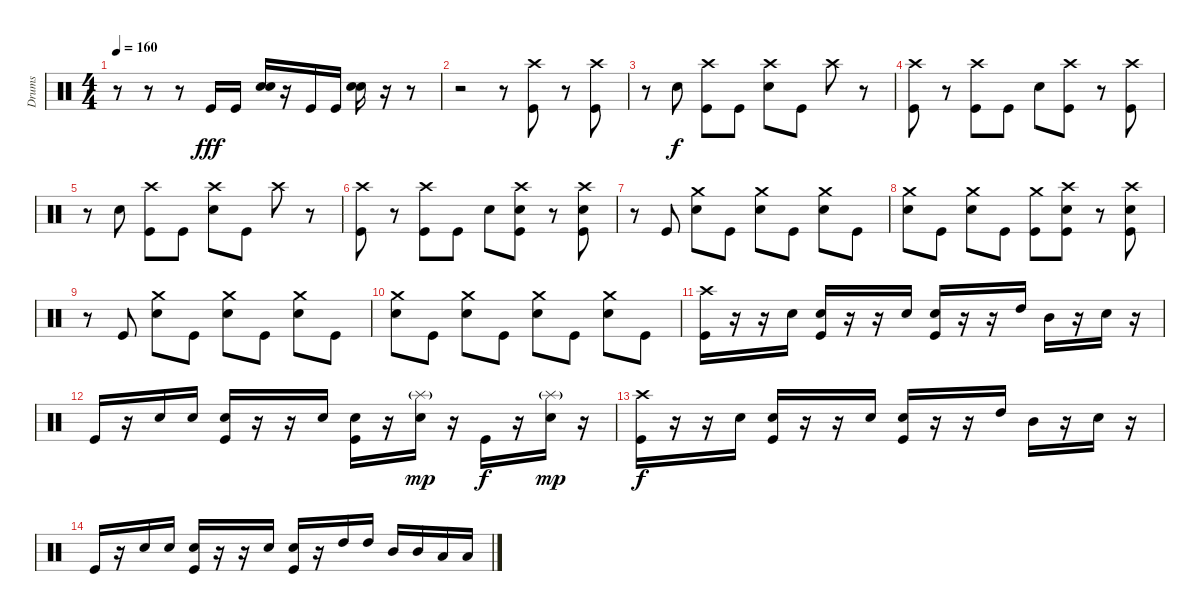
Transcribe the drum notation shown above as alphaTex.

\track ("Drums" "Drums") {instrument percussion}
\staff {score}
\articulation defaults
\ts (4 4)
\tempo 160
\clef neutral
\ks c
r.8{dy fff} r.8 r.8 "Kick (hit)".16 "Kick (hit)".16 ("Snare (hit) 2" "Snare (hit) 2").16 r.16 "Kick (hit)".16 "Kick (hit)".16 ("Snare (hit) 2" "Snare (hit) 2").16 r.16 r.8 |
r.2 r.8 ("Crash high (hit)" "Kick (hit)").8 r.8 ("Crash high (hit)" "Kick (hit)").8 |
r.8 "Snare (hit) 2".8{dy f} ("Crash high (hit)" "Kick (hit)").8 "Kick (hit)".8 ("Crash high (hit)" "Snare (hit) 2").8 "Kick (hit)".8 "Crash high (hit)".8 r.8 |
("Crash high (hit)" "Kick (hit)").8 r.8 ("Crash high (hit)" "Kick (hit)").8 "Kick (hit)".8 "Snare (hit) 2".8 ("Crash high (hit)" "Kick (hit)").8 r.8 ("Crash high (hit)" "Kick (hit)").8 |
r.8 "Snare (hit) 2".8 ("Crash high (hit)" "Kick (hit)").8 "Kick (hit)".8 ("Crash high (hit)" "Snare (hit) 2").8 "Kick (hit)".8 "Crash high (hit)".8 r.8 |
("Crash high (hit)" "Kick (hit)").8 r.8 ("Crash high (hit)" "Kick (hit)").8 "Kick (hit)".8 "Snare (hit) 2".8 ("Crash high (hit)" "Kick (hit)" "Snare (hit) 2").8 r.8 ("Crash high (hit)" "Kick (hit)" "Snare (hit) 2").8 |
r.8 "Kick (hit)".8 ("Crash medium (hit)" "Snare (hit) 2").8 "Kick (hit)".8 ("Crash medium (hit)" "Snare (hit) 2").8 "Kick (hit)".8 ("Crash medium (hit)" "Snare (hit) 2").8 "Kick (hit)".8 |
("Crash medium (hit)" "Snare (hit) 2").8 "Kick (hit)".8 ("Crash medium (hit)" "Snare (hit) 2").8 "Kick (hit)".8 ("Crash medium (hit)" "Kick (hit)").8 ("Crash high (hit)" "Snare (hit) 2" "Kick (hit)").8 r.8 ("Crash high (hit)" "Snare (hit) 2" "Kick (hit)").8 |
r.8 "Kick (hit)".8 ("Crash medium (hit)" "Snare (hit) 2").8 "Kick (hit)".8 ("Crash medium (hit)" "Snare (hit) 2").8 "Kick (hit)".8 ("Crash medium (hit)" "Snare (hit) 2").8 "Kick (hit)".8 |
("Crash medium (hit)" "Snare (hit) 2").8 "Kick (hit)".8 ("Crash medium (hit)" "Snare (hit) 2").8 "Kick (hit)".8 ("Crash medium (hit)" "Snare (hit) 2").8 "Kick (hit)".8 ("Crash medium (hit)" "Snare (hit) 2").8 "Kick (hit)".8 |
("Crash high (hit)" "Kick (hit)").16 r.16 r.16 "Snare (hit) 2".16 ("Kick (hit)" "Snare (hit) 2").16 r.16 r.16 "Snare (hit) 2".16 ("Kick (hit)" "Snare (hit) 2").16 r.16 r.16 "High Tom (hit)".16 "Mid Tom (hit)".16 r.16 "Snare (hit) 2".16 r.16 |
"Kick (hit)".16 r.16 "Snare (hit) 2".16 "Snare (hit) 2".16 ("Kick (hit)" "Snare (hit) 2").16 r.16 r.16 "Snare (hit) 2".16 ("Kick (hit)" "Snare (hit) 2").16 r.16 ("Splash (hit)"{g} "Snare (hit) 2").16{dy mp} r.16 "Kick (hit)".16{dy f} r.16 ("Splash (hit)"{g} "Snare (hit) 2").16{dy mp} r.16 |
("Crash high (hit)" "Kick (hit)").16{dy f} r.16 r.16 "Snare (hit) 2".16 ("Kick (hit)" "Snare (hit) 2").16 r.16 r.16 "Snare (hit) 2".16 ("Kick (hit)" "Snare (hit) 2").16 r.16 r.16 "High Tom (hit)".16 "Mid Tom (hit)".16 r.16 "Snare (hit) 2".16 r.16 |
"Kick (hit)".16 r.16 "Snare (hit) 2".16 "Snare (hit) 2".16 ("Kick (hit)" "Snare (hit) 2").16 r.16 r.16 "Snare (hit) 2".16 ("Kick (hit)" "Snare (hit) 2").16 r.16 "High Tom (hit)".16 "High Tom (hit)".16 "Mid Tom (hit)".16 "Mid Tom (hit)".16 "Low Floor Tom (hit)".16 "Low Floor Tom (hit)".16
